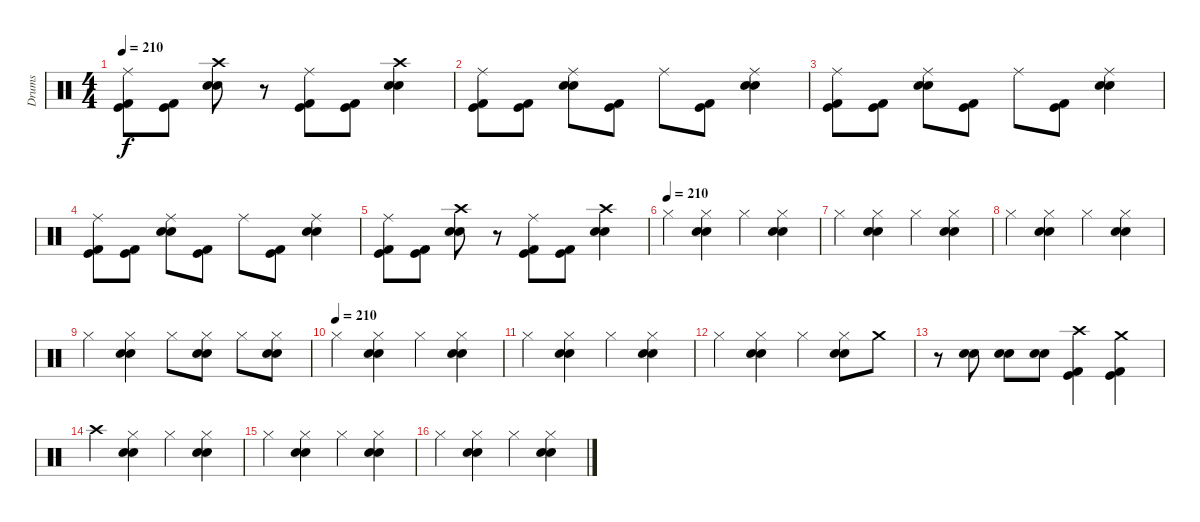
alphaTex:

\track ("Drums" "Drums") {instrument percussion}
\staff {score}
\articulation defaults
\ts (4 4)
\tempo 210
\clef neutral
\ks c
("Ride (middle)" "Kick (hit) 2" "Kick (hit)").8{dy f} ("Kick (hit) 2" "Kick (hit)").8 ("Crash high (hit)" "Electric Snare (hit)" "Snare (hit) 2").8 r.8 ("Ride (middle)" "Kick (hit) 2" "Kick (hit)").8 ("Kick (hit) 2" "Kick (hit)").8 ("Crash high (hit)" "Electric Snare (hit)" "Snare (hit) 2").4 |
("Ride (middle)" "Kick (hit) 2" "Kick (hit)").8 ("Kick (hit) 2" "Kick (hit)").8 ("Ride (middle)" "Electric Snare (hit)" "Snare (hit) 2").8 ("Kick (hit) 2" "Kick (hit)").8 "Ride (middle)".8 ("Kick (hit) 2" "Kick (hit)").8 ("Ride (middle)" "Electric Snare (hit)" "Snare (hit) 2").4 |
("Ride (middle)" "Kick (hit) 2" "Kick (hit)").8 ("Kick (hit) 2" "Kick (hit)").8 ("Ride (middle)" "Electric Snare (hit)" "Snare (hit) 2").8 ("Kick (hit) 2" "Kick (hit)").8 "Ride (middle)".8 ("Kick (hit) 2" "Kick (hit)").8 ("Ride (middle)" "Electric Snare (hit)" "Snare (hit) 2").4 |
("Ride (middle)" "Kick (hit) 2" "Kick (hit)").8 ("Kick (hit) 2" "Kick (hit)").8 ("Ride (middle)" "Electric Snare (hit)" "Snare (hit) 2").8 ("Kick (hit) 2" "Kick (hit)").8 "Ride (middle)".8 ("Kick (hit) 2" "Kick (hit)").8 ("Ride (middle)" "Electric Snare (hit)" "Snare (hit) 2").4 |
("Ride (middle)" "Kick (hit) 2" "Kick (hit)").8 ("Kick (hit) 2" "Kick (hit)").8 ("Crash high (hit)" "Electric Snare (hit)" "Snare (hit) 2").8 r.8 ("Ride (middle)" "Kick (hit) 2" "Kick (hit)").8 ("Kick (hit) 2" "Kick (hit)").8 ("Crash high (hit)" "Electric Snare (hit)" "Snare (hit) 2").4 |
\tempo (210)
"Hi-Hat (closed)".4 ("Hi-Hat (closed)" "Electric Snare (hit)" "Snare (hit) 2").4 "Hi-Hat (closed)".4 ("Hi-Hat (closed)" "Electric Snare (hit)" "Snare (hit) 2").4 |
"Hi-Hat (closed)".4 ("Hi-Hat (closed)" "Electric Snare (hit)" "Snare (hit) 2").4 "Hi-Hat (closed)".4 ("Hi-Hat (closed)" "Electric Snare (hit)" "Snare (hit) 2").4 |
"Hi-Hat (closed)".4 ("Hi-Hat (closed)" "Electric Snare (hit)" "Snare (hit) 2").4 "Hi-Hat (closed)".4 ("Hi-Hat (closed)" "Electric Snare (hit)" "Snare (hit) 2").4 |
"Hi-Hat (closed)".4 ("Hi-Hat (closed)" "Electric Snare (hit)" "Snare (hit) 2").4 "Hi-Hat (closed)".8 ("Hi-Hat (closed)" "Electric Snare (hit)" "Snare (hit) 2").8 "Hi-Hat (closed)".8 ("Hi-Hat (closed)" "Electric Snare (hit)" "Snare (hit) 2").8 |
\tempo (210)
"Hi-Hat (closed)".4 ("Hi-Hat (closed)" "Electric Snare (hit)" "Snare (hit) 2").4 "Hi-Hat (closed)".4 ("Hi-Hat (closed)" "Electric Snare (hit)" "Snare (hit) 2").4 |
"Hi-Hat (closed)".4 ("Hi-Hat (closed)" "Electric Snare (hit)" "Snare (hit) 2").4 "Hi-Hat (closed)".4 ("Hi-Hat (closed)" "Electric Snare (hit)" "Snare (hit) 2").4 |
"Hi-Hat (closed)".4 ("Hi-Hat (closed)" "Electric Snare (hit)" "Snare (hit) 2").4 "Hi-Hat (closed)".4 ("Hi-Hat (closed)" "Electric Snare (hit)" "Snare (hit) 2").8 "Crash medium (hit)".8 |
r.8 ("Electric Snare (hit)" "Snare (hit) 2").8 ("Electric Snare (hit)" "Snare (hit) 2").8 ("Electric Snare (hit)" "Snare (hit) 2").8 ("Kick (hit) 2" "Kick (hit)" "Crash high (hit)").4 ("Kick (hit) 2" "Kick (hit)" "Crash medium (hit)").4 |
"Crash high (hit)".4 ("Hi-Hat (closed)" "Electric Snare (hit)" "Snare (hit) 2").4 "Hi-Hat (closed)".4 ("Hi-Hat (closed)" "Electric Snare (hit)" "Snare (hit) 2").4 |
"Hi-Hat (closed)".4 ("Hi-Hat (closed)" "Electric Snare (hit)" "Snare (hit) 2").4 "Hi-Hat (closed)".4 ("Hi-Hat (closed)" "Electric Snare (hit)" "Snare (hit) 2").4 |
"Hi-Hat (closed)".4 ("Hi-Hat (closed)" "Electric Snare (hit)" "Snare (hit) 2").4 "Hi-Hat (closed)".4 ("Hi-Hat (closed)" "Electric Snare (hit)" "Snare (hit) 2").4
